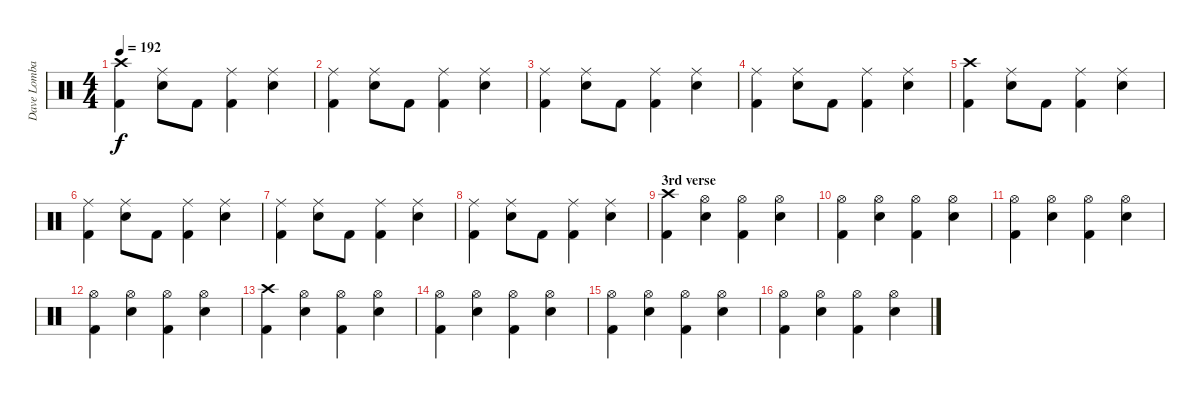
\track ("Dave Lombardo" "Dave Lomba") {instrument percussion}
\staff {score}
\articulation defaults
\ts (4 4)
\tempo 192
\clef neutral
\ks c
("Crash high (hit)" "Kick (hit) 2").4{dy f} ("Ride (middle)" "Electric Snare (hit)").8 "Kick (hit) 2".8 ("Ride (middle)" "Kick (hit) 2").4 ("Ride (middle)" "Electric Snare (hit)").4 |
("Ride (middle)" "Kick (hit) 2").4 ("Ride (middle)" "Electric Snare (hit)").8 "Kick (hit) 2".8 ("Ride (middle)" "Kick (hit) 2").4 ("Ride (middle)" "Electric Snare (hit)").4 |
("Ride (middle)" "Kick (hit) 2").4 ("Ride (middle)" "Electric Snare (hit)").8 "Kick (hit) 2".8 ("Ride (middle)" "Kick (hit) 2").4 ("Ride (middle)" "Electric Snare (hit)").4 |
("Ride (middle)" "Kick (hit) 2").4 ("Ride (middle)" "Electric Snare (hit)").8 "Kick (hit) 2".8 ("Ride (middle)" "Kick (hit) 2").4 ("Ride (middle)" "Electric Snare (hit)").4 |
("Crash high (hit)" "Kick (hit) 2").4 ("Ride (middle)" "Electric Snare (hit)").8 "Kick (hit) 2".8 ("Ride (middle)" "Kick (hit) 2").4 ("Ride (middle)" "Electric Snare (hit)").4 |
("Ride (middle)" "Kick (hit) 2").4 ("Ride (middle)" "Electric Snare (hit)").8 "Kick (hit) 2".8 ("Ride (middle)" "Kick (hit) 2").4 ("Ride (middle)" "Electric Snare (hit)").4 |
("Ride (middle)" "Kick (hit) 2").4 ("Ride (middle)" "Electric Snare (hit)").8 "Kick (hit) 2".8 ("Ride (middle)" "Kick (hit) 2").4 ("Ride (middle)" "Electric Snare (hit)").4 |
("Ride (middle)" "Kick (hit) 2").4 ("Ride (middle)" "Electric Snare (hit)").8 "Kick (hit) 2".8 ("Ride (middle)" "Kick (hit) 2").4 ("Ride (middle)" "Electric Snare (hit)").4 |
\section ("" "3rd verse")
("Crash high (hit)" "Kick (hit) 2").4 ("Hi-Hat (open)" "Electric Snare (hit)").4 ("Hi-Hat (open)" "Kick (hit) 2").4 ("Hi-Hat (open)" "Electric Snare (hit)").4 |
("Hi-Hat (open)" "Kick (hit) 2").4 ("Hi-Hat (open)" "Electric Snare (hit)").4 ("Hi-Hat (open)" "Kick (hit) 2").4 ("Hi-Hat (open)" "Electric Snare (hit)").4 |
("Hi-Hat (open)" "Kick (hit) 2").4 ("Hi-Hat (open)" "Electric Snare (hit)").4 ("Hi-Hat (open)" "Kick (hit) 2").4 ("Hi-Hat (open)" "Electric Snare (hit)").4 |
("Hi-Hat (open)" "Kick (hit) 2").4 ("Hi-Hat (open)" "Electric Snare (hit)").4 ("Hi-Hat (open)" "Kick (hit) 2").4 ("Hi-Hat (open)" "Electric Snare (hit)").4 |
("Crash high (hit)" "Kick (hit) 2").4 ("Hi-Hat (open)" "Electric Snare (hit)").4 ("Hi-Hat (open)" "Kick (hit) 2").4 ("Hi-Hat (open)" "Electric Snare (hit)").4 |
("Hi-Hat (open)" "Kick (hit) 2").4 ("Hi-Hat (open)" "Electric Snare (hit)").4 ("Hi-Hat (open)" "Kick (hit) 2").4 ("Hi-Hat (open)" "Electric Snare (hit)").4 |
("Hi-Hat (open)" "Kick (hit) 2").4 ("Hi-Hat (open)" "Electric Snare (hit)").4 ("Hi-Hat (open)" "Kick (hit) 2").4 ("Hi-Hat (open)" "Electric Snare (hit)").4 |
("Hi-Hat (open)" "Kick (hit) 2").4 ("Hi-Hat (open)" "Electric Snare (hit)").4 ("Hi-Hat (open)" "Kick (hit) 2").4 ("Hi-Hat (open)" "Electric Snare (hit)").4
